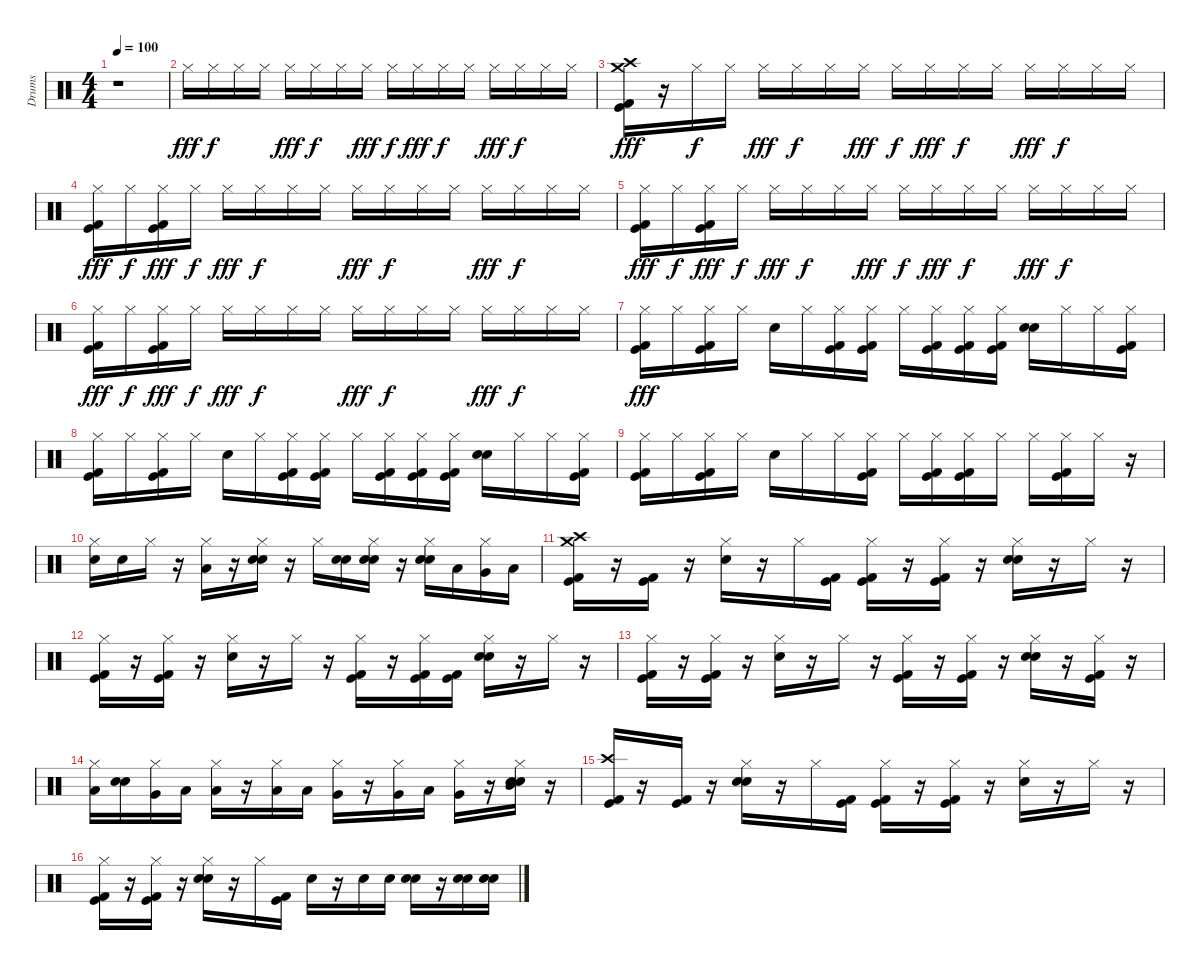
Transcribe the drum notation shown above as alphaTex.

\track ("Drums" "Drums") {instrument percussion}
\staff {score}
\articulation defaults
\ts (4 4)
\tempo 100
\clef neutral
\ks c
r.1{dy fff} |
"Hi-Hat (closed)".16 "Hi-Hat (closed)".16{dy f} "Hi-Hat (closed)".16 "Hi-Hat (closed)".16 "Hi-Hat (closed)".16{dy fff} "Hi-Hat (closed)".16{dy f} "Hi-Hat (closed)".16 "Hi-Hat (closed)".16{dy fff} "Hi-Hat (closed)".16{dy f} "Hi-Hat (closed)".16{dy fff} "Hi-Hat (closed)".16{dy f} "Hi-Hat (closed)".16 "Hi-Hat (closed)".16{dy fff} "Hi-Hat (closed)".16{dy f} "Hi-Hat (closed)".16 "Hi-Hat (closed)".16 |
("Crash medium (hit)" "Kick (hit) 2" "Crash high (hit)" "Kick (hit)").16{dy fff} r.16 "Hi-Hat (closed)".16{dy f} "Hi-Hat (closed)".16 "Hi-Hat (closed)".16{dy fff} "Hi-Hat (closed)".16{dy f} "Hi-Hat (closed)".16 "Hi-Hat (closed)".16{dy fff} "Hi-Hat (closed)".16{dy f} "Hi-Hat (closed)".16{dy fff} "Hi-Hat (closed)".16{dy f} "Hi-Hat (closed)".16 "Hi-Hat (closed)".16{dy fff} "Hi-Hat (closed)".16{dy f} "Hi-Hat (closed)".16 "Hi-Hat (closed)".16 |
("Kick (hit) 2" "Hi-Hat (closed)" "Kick (hit)").16{dy fff} "Hi-Hat (closed)".16{dy f} ("Hi-Hat (closed)" "Kick (hit) 2" "Kick (hit)").16{dy fff} "Hi-Hat (closed)".16{dy f} "Hi-Hat (closed)".16{dy fff} "Hi-Hat (closed)".16{dy f} "Hi-Hat (closed)".16 "Hi-Hat (closed)".16 "Hi-Hat (closed)".16{dy fff} "Hi-Hat (closed)".16{dy f} "Hi-Hat (closed)".16 "Hi-Hat (closed)".16 "Hi-Hat (closed)".16{dy fff} "Hi-Hat (closed)".16{dy f} "Hi-Hat (closed)".16 "Hi-Hat (closed)".16 |
("Hi-Hat (closed)" "Kick (hit) 2" "Kick (hit)").16{dy fff} "Hi-Hat (closed)".16{dy f} ("Kick (hit) 2" "Kick (hit)" "Hi-Hat (closed)").16{dy fff} "Hi-Hat (closed)".16{dy f} "Hi-Hat (closed)".16{dy fff} "Hi-Hat (closed)".16{dy f} "Hi-Hat (closed)".16 "Hi-Hat (closed)".16{dy fff} "Hi-Hat (closed)".16{dy f} "Hi-Hat (closed)".16{dy fff} "Hi-Hat (closed)".16{dy f} "Hi-Hat (closed)".16 "Hi-Hat (closed)".16{dy fff} "Hi-Hat (closed)".16{dy f} "Hi-Hat (closed)".16 "Hi-Hat (closed)".16 |
("Hi-Hat (closed)" "Kick (hit)" "Kick (hit) 2").16{dy fff} "Hi-Hat (closed)".16{dy f} ("Kick (hit) 2" "Hi-Hat (closed)" "Kick (hit)").16{dy fff} "Hi-Hat (closed)".16{dy f} "Hi-Hat (closed)".16{dy fff} "Hi-Hat (closed)".16{dy f} "Hi-Hat (closed)".16 "Hi-Hat (closed)".16 "Hi-Hat (closed)".16{dy fff} "Hi-Hat (closed)".16{dy f} "Hi-Hat (closed)".16 "Hi-Hat (closed)".16 "Hi-Hat (closed)".16{dy fff} "Hi-Hat (closed)".16{dy f} "Hi-Hat (closed)".16 "Hi-Hat (closed)".16 |
("Kick (hit) 2" "Kick (hit)" "Hi-Hat (closed)").16{dy fff} "Hi-Hat (closed)".16 ("Kick (hit)" "Kick (hit) 2" "Hi-Hat (closed)").16 "Hi-Hat (closed)".16 "Electric Snare (hit)".16 "Hi-Hat (closed)".16 ("Kick (hit) 2" "Kick (hit)" "Hi-Hat (closed)").16 ("Kick (hit)" "Hi-Hat (closed)" "Kick (hit) 2").16 "Hi-Hat (closed)".16 ("Kick (hit) 2" "Hi-Hat (closed)" "Kick (hit)").16 ("Kick (hit)" "Hi-Hat (closed)" "Kick (hit) 2").16 ("Kick (hit) 2" "Hi-Hat (closed)" "Kick (hit)").16 ("Snare (hit) 2" "Electric Snare (hit)").16 "Hi-Hat (closed)".16 "Hi-Hat (closed)".16 ("Hi-Hat (closed)" "Kick (hit)" "Kick (hit) 2").16 |
("Hi-Hat (closed)" "Kick (hit) 2" "Kick (hit)").16 "Hi-Hat (closed)".16 ("Kick (hit)" "Hi-Hat (closed)" "Kick (hit) 2").16 "Hi-Hat (closed)".16 "Electric Snare (hit)".16 "Hi-Hat (closed)".16 ("Hi-Hat (closed)" "Kick (hit)" "Kick (hit) 2").16 ("Kick (hit) 2" "Kick (hit)" "Hi-Hat (closed)").16 "Hi-Hat (closed)".16 ("Kick (hit)" "Hi-Hat (closed)" "Kick (hit) 2").16 ("Hi-Hat (closed)" "Kick (hit) 2" "Kick (hit)").16 ("Kick (hit)" "Hi-Hat (closed)" "Kick (hit) 2").16 ("Electric Snare (hit)" "Snare (hit) 2").16 "Hi-Hat (closed)".16 "Hi-Hat (closed)".16 ("Kick (hit)" "Kick (hit) 2" "Hi-Hat (closed)").16 |
("Kick (hit)" "Hi-Hat (closed)" "Kick (hit) 2").16 "Hi-Hat (closed)".16 ("Kick (hit) 2" "Hi-Hat (closed)" "Kick (hit)").16 "Hi-Hat (closed)".16 "Electric Snare (hit)".16 "Hi-Hat (closed)".16 "Hi-Hat (closed)".16 ("Hi-Hat (closed)" "Kick (hit)" "Kick (hit) 2").16 "Hi-Hat (closed)".16 ("Kick (hit)" "Kick (hit) 2" "Hi-Hat (closed)").16 ("Hi-Hat (closed)" "Kick (hit)" "Kick (hit) 2").16 "Hi-Hat (closed)".16 "Hi-Hat (closed)".16 ("Kick (hit) 2" "Kick (hit)" "Hi-Hat (closed)").16 "Hi-Hat (closed)".16 r.16 |
("Hi-Hat (closed)" "Electric Snare (hit)").16 "Electric Snare (hit)".16 "Hi-Hat (closed)".16 r.16 ("Hi-Hat (closed)" "Low Tom (hit)").16 r.16 ("Hi-Hat (closed)" "Electric Snare (hit)" "Snare (hit) 2").16 r.16 "Hi-Hat (closed)".16 ("Snare (hit) 2" "Electric Snare (hit)").16 ("Hi-Hat (closed)" "Electric Snare (hit)" "Snare (hit) 2").16 r.16 ("Electric Snare (hit)" "Snare (hit) 2" "Hi-Hat (closed)").16 "Low Tom (hit)".16 ("Very Low Tom (hit)" "Hi-Hat (closed)").16 "Low Floor Tom (hit)".16 |
("Kick (hit)" "Kick (hit) 2" "Crash medium (hit)" "Crash high (hit)").16 r.16 ("Kick (hit) 2" "Kick (hit)").16 r.16 ("Electric Snare (hit)" "Hi-Hat (closed)").16 r.16 "Hi-Hat (closed)".16 ("Kick (hit)" "Kick (hit) 2").16 ("Kick (hit) 2" "Kick (hit)" "Hi-Hat (closed)").16 r.16 ("Hi-Hat (closed)" "Kick (hit)" "Kick (hit) 2").16 r.16 ("Electric Snare (hit)" "Snare (hit) 2" "Hi-Hat (closed)").16 r.16 "Hi-Hat (closed)".16 r.16 |
("Hi-Hat (closed)" "Kick (hit) 2" "Kick (hit)").16 r.16 ("Hi-Hat (closed)" "Kick (hit)" "Kick (hit) 2").16 r.16 ("Hi-Hat (closed)" "Electric Snare (hit)").16 r.16 "Hi-Hat (closed)".16 r.16 ("Kick (hit) 2" "Hi-Hat (closed)" "Kick (hit)").16 r.16 ("Kick (hit) 2" "Hi-Hat (closed)" "Kick (hit)").16 ("Kick (hit)" "Kick (hit) 2").16 ("Hi-Hat (closed)" "Electric Snare (hit)" "Snare (hit) 2").16 r.16 "Hi-Hat (closed)".16 r.16 |
("Kick (hit)" "Hi-Hat (closed)" "Kick (hit) 2").16 r.16 ("Hi-Hat (closed)" "Kick (hit)" "Kick (hit) 2").16 r.16 ("Electric Snare (hit)" "Hi-Hat (closed)").16 r.16 "Hi-Hat (closed)".16 r.16 ("Kick (hit) 2" "Kick (hit)" "Hi-Hat (closed)").16 r.16 ("Kick (hit)" "Kick (hit) 2" "Hi-Hat (closed)").16 r.16 ("Electric Snare (hit)" "Hi-Hat (closed)" "Snare (hit) 2").16 r.16 ("Hi-Hat (closed)" "Kick (hit)" "Kick (hit) 2").16 r.16 |
("Low Tom (hit)" "Hi-Hat (closed)").16 ("Snare (hit) 2" "Electric Snare (hit)").16 ("Hi-Hat (closed)" "Very Low Tom (hit)").16 "Low Tom (hit)".16 ("Low Tom (hit)" "Hi-Hat (closed)").16 r.16 ("Hi-Hat (closed)" "Low Tom (hit)").16 "Low Tom (hit)".16 ("Very Low Tom (hit)" "Hi-Hat (closed)").16 r.16 ("Very Low Tom (hit)" "Hi-Hat (closed)").16 "Low Tom (hit)".16 ("Hi-Hat (closed)" "Very Low Tom (hit)").16 r.16 ("Electric Snare (hit)" "Hi-Hat (closed)" "Mid Tom (hit)" "Snare (hit) 2").16 r.16 |
("Kick (hit) 2" "Crash high (hit)" "Kick (hit)").16 r.16 ("Kick (hit)" "Kick (hit) 2").16 r.16 ("Snare (hit) 2" "Electric Snare (hit)" "Hi-Hat (closed)").16 r.16 "Hi-Hat (closed)".16 ("Kick (hit)" "Kick (hit) 2").16 ("Kick (hit)" "Hi-Hat (closed)" "Kick (hit) 2").16 r.16 ("Kick (hit)" "Kick (hit) 2" "Hi-Hat (closed)").16 r.16 ("Hi-Hat (closed)" "Electric Snare (hit)").16 r.16 "Hi-Hat (closed)".16 r.16 |
("Hi-Hat (closed)" "Kick (hit) 2" "Kick (hit)").16 r.16 ("Kick (hit) 2" "Hi-Hat (closed)" "Kick (hit)").16 r.16 ("Electric Snare (hit)" "Snare (hit) 2" "Hi-Hat (closed)").16 r.16 "Hi-Hat (closed)".16 ("Kick (hit)" "Kick (hit) 2").16 "Electric Snare (hit)".16 r.16 "Electric Snare (hit)".16 "Electric Snare (hit)".16 ("Snare (hit) 2" "Electric Snare (hit)").16 r.16 ("Electric Snare (hit)" "Snare (hit) 2").16 ("Electric Snare (hit)" "Snare (hit) 2").16
